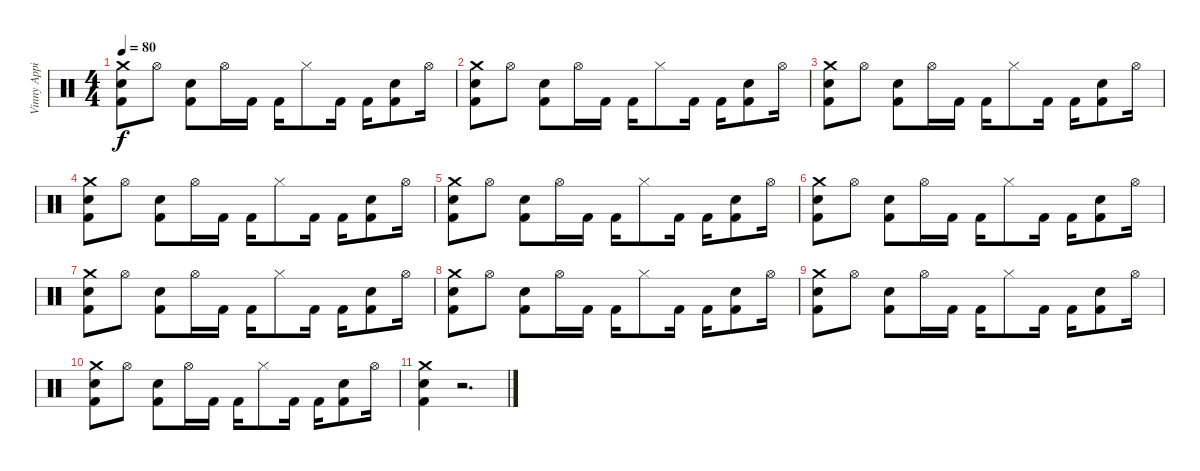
\track ("Vinny Appice" "Vinny Appi") {instrument percussion}
\staff {score}
\articulation defaults
\ts (4 4)
\tempo 80
\clef neutral
\ks c
("Crash medium (hit)" "Snare (hit) 2" "Kick (hit) 2").8{dy f} "Hi-Hat (open)".8 ("Snare (hit) 2" "Kick (hit) 2").8 "Hi-Hat (open)".16 "Kick (hit) 2".16 "Kick (hit) 2".16 "Hi-Hat (closed)".8 "Kick (hit) 2".16 "Kick (hit) 2".16 ("Snare (hit) 2" "Kick (hit) 2").8 "Hi-Hat (open)".16 |
("Crash medium (hit)" "Snare (hit) 2" "Kick (hit) 2").8 "Hi-Hat (open)".8 ("Snare (hit) 2" "Kick (hit) 2").8 "Hi-Hat (open)".16 "Kick (hit) 2".16 "Kick (hit) 2".16 "Hi-Hat (closed)".8 "Kick (hit) 2".16 "Kick (hit) 2".16 ("Snare (hit) 2" "Kick (hit) 2").8 "Hi-Hat (open)".16 |
("Crash medium (hit)" "Snare (hit) 2" "Kick (hit) 2").8 "Hi-Hat (open)".8 ("Snare (hit) 2" "Kick (hit) 2").8 "Hi-Hat (open)".16 "Kick (hit) 2".16 "Kick (hit) 2".16 "Hi-Hat (closed)".8 "Kick (hit) 2".16 "Kick (hit) 2".16 ("Snare (hit) 2" "Kick (hit) 2").8 "Hi-Hat (open)".16 |
("Crash medium (hit)" "Snare (hit) 2" "Kick (hit) 2").8 "Hi-Hat (open)".8 ("Snare (hit) 2" "Kick (hit) 2").8 "Hi-Hat (open)".16 "Kick (hit) 2".16 "Kick (hit) 2".16 "Hi-Hat (closed)".8 "Kick (hit) 2".16 "Kick (hit) 2".16 ("Snare (hit) 2" "Kick (hit) 2").8 "Hi-Hat (open)".16 |
("Crash medium (hit)" "Snare (hit) 2" "Kick (hit) 2").8 "Hi-Hat (open)".8 ("Snare (hit) 2" "Kick (hit) 2").8 "Hi-Hat (open)".16 "Kick (hit) 2".16 "Kick (hit) 2".16 "Hi-Hat (closed)".8 "Kick (hit) 2".16 "Kick (hit) 2".16 ("Snare (hit) 2" "Kick (hit) 2").8 "Hi-Hat (open)".16 |
("Crash medium (hit)" "Snare (hit) 2" "Kick (hit) 2").8 "Hi-Hat (open)".8 ("Snare (hit) 2" "Kick (hit) 2").8 "Hi-Hat (open)".16 "Kick (hit) 2".16 "Kick (hit) 2".16 "Hi-Hat (closed)".8 "Kick (hit) 2".16 "Kick (hit) 2".16 ("Snare (hit) 2" "Kick (hit) 2").8 "Hi-Hat (open)".16 |
("Crash medium (hit)" "Snare (hit) 2" "Kick (hit) 2").8 "Hi-Hat (open)".8 ("Snare (hit) 2" "Kick (hit) 2").8 "Hi-Hat (open)".16 "Kick (hit) 2".16 "Kick (hit) 2".16 "Hi-Hat (closed)".8 "Kick (hit) 2".16 "Kick (hit) 2".16 ("Snare (hit) 2" "Kick (hit) 2").8 "Hi-Hat (open)".16 |
("Crash medium (hit)" "Snare (hit) 2" "Kick (hit) 2").8 "Hi-Hat (open)".8 ("Snare (hit) 2" "Kick (hit) 2").8 "Hi-Hat (open)".16 "Kick (hit) 2".16 "Kick (hit) 2".16 "Hi-Hat (closed)".8 "Kick (hit) 2".16 "Kick (hit) 2".16 ("Snare (hit) 2" "Kick (hit) 2").8 "Hi-Hat (open)".16 |
("Crash medium (hit)" "Snare (hit) 2" "Kick (hit) 2").8 "Hi-Hat (open)".8 ("Snare (hit) 2" "Kick (hit) 2").8 "Hi-Hat (open)".16 "Kick (hit) 2".16 "Kick (hit) 2".16 "Hi-Hat (closed)".8 "Kick (hit) 2".16 "Kick (hit) 2".16 ("Snare (hit) 2" "Kick (hit) 2").8 "Hi-Hat (open)".16 |
("Crash medium (hit)" "Snare (hit) 2" "Kick (hit) 2").8 "Hi-Hat (open)".8 ("Snare (hit) 2" "Kick (hit) 2").8 "Hi-Hat (open)".16 "Kick (hit) 2".16 "Kick (hit) 2".16 "Hi-Hat (closed)".8 "Kick (hit) 2".16 "Kick (hit) 2".16 ("Snare (hit) 2" "Kick (hit) 2").8 "Hi-Hat (open)".16 |
("Crash medium (hit)" "Snare (hit) 2" "Kick (hit) 2").4 r.2{d}
